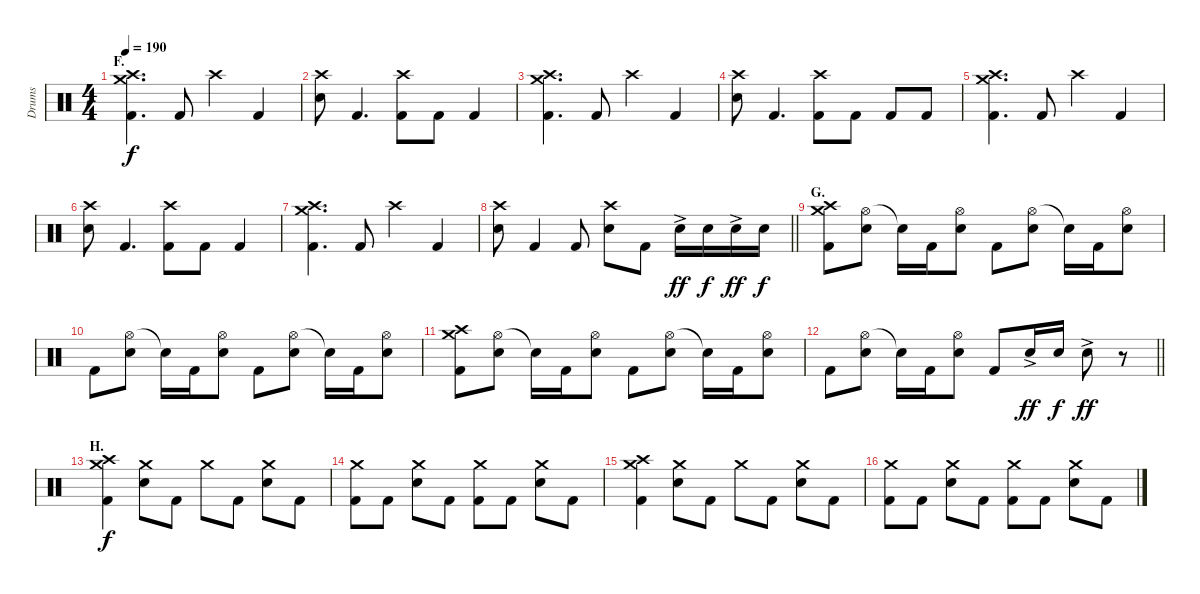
\track ("Drums" "Drums") {instrument percussion}
\staff {score}
\articulation defaults
\ts (4 4)
\section ("" "F.")
\tempo 190
\clef neutral
\ks c
("Crash medium (hit)" "Crash high (hit)" "Kick (hit) 2").4{d dy f} "Kick (hit) 2".8 "Crash high (hit)".4 "Kick (hit) 2".4 |
("Crash high (hit)" "Electric Snare (hit)").8 "Kick (hit) 2".4{d} ("Crash high (hit)" "Kick (hit) 2").8 "Kick (hit) 2".8 "Kick (hit) 2".4 |
("Crash medium (hit)" "Crash high (hit)" "Kick (hit) 2").4{d} "Kick (hit) 2".8 "Crash high (hit)".4 "Kick (hit) 2".4 |
("Crash high (hit)" "Electric Snare (hit)").8 "Kick (hit) 2".4{d} ("Crash high (hit)" "Kick (hit) 2").8 "Kick (hit) 2".8 "Kick (hit) 2".8 "Kick (hit) 2".8 |
("Crash medium (hit)" "Crash high (hit)" "Kick (hit) 2").4{d} "Kick (hit) 2".8 "Crash high (hit)".4 "Kick (hit) 2".4 |
("Crash high (hit)" "Electric Snare (hit)").8 "Kick (hit) 2".4{d} ("Crash high (hit)" "Kick (hit) 2").8 "Kick (hit) 2".8 "Kick (hit) 2".4 |
("Crash medium (hit)" "Crash high (hit)" "Kick (hit) 2").4{d} "Kick (hit) 2".8 "Crash high (hit)".4 "Kick (hit) 2".4 |
\barLineRight lightlight
("Crash high (hit)" "Electric Snare (hit)").8 "Kick (hit) 2".4 "Kick (hit) 2".8 ("Crash high (hit)" "Electric Snare (hit)").8 "Kick (hit) 2".8 "Electric Snare (hit)"{ac}.16{dy ff} "Electric Snare (hit)".16{dy f} "Electric Snare (hit)"{ac}.16{dy ff} "Electric Snare (hit)".16{dy f} |
\section ("" "G.")
("Crash medium (hit)" "Crash high (hit)" "Kick (hit) 2").8 ("Hi-Hat (open)" "Electric Snare (hit)").8 "Snare (hit)"{t}.16 "Kick (hit) 2".16 ("Hi-Hat (open)" "Electric Snare (hit)").8 "Kick (hit) 2".8 ("Hi-Hat (open)" "Electric Snare (hit)").8 "Snare (hit)"{t}.16 "Kick (hit) 2".16 ("Hi-Hat (open)" "Electric Snare (hit)").8 |
"Kick (hit) 2".8 ("Hi-Hat (open)" "Electric Snare (hit)").8 "Snare (hit)"{t}.16 "Kick (hit) 2".16 ("Hi-Hat (open)" "Electric Snare (hit)").8 "Kick (hit) 2".8 ("Hi-Hat (open)" "Electric Snare (hit)").8 "Snare (hit)"{t}.16 "Kick (hit) 2".16 ("Hi-Hat (open)" "Electric Snare (hit)").8 |
("Crash medium (hit)" "Crash high (hit)" "Kick (hit) 2").8 ("Hi-Hat (open)" "Electric Snare (hit)").8 "Snare (hit)"{t}.16 "Kick (hit) 2".16 ("Hi-Hat (open)" "Electric Snare (hit)").8 "Kick (hit) 2".8 ("Hi-Hat (open)" "Electric Snare (hit)").8 "Snare (hit)"{t}.16 "Kick (hit) 2".16 ("Hi-Hat (open)" "Electric Snare (hit)").8 |
\barLineRight lightlight "Kick (hit) 2".8
("Hi-Hat (open)" "Electric Snare (hit)").8 "Snare (hit)"{t}.16 "Kick (hit) 2".16 ("Hi-Hat (open)" "Electric Snare (hit)").8 "Kick (hit) 2".8 "Electric Snare (hit)"{ac}.16{dy ff} "Electric Snare (hit)".16{dy f} "Electric Snare (hit)"{ac}.8{dy ff} r.8 |
\section ("" "H.")
("Crash medium (hit)" "Crash high (hit)" "Kick (hit) 2").4{dy f} ("Crash medium (hit)" "Electric Snare (hit)").8 "Kick (hit) 2".8 "Crash medium (hit)".8 "Kick (hit) 2".8 ("Crash medium (hit)" "Electric Snare (hit)").8 "Kick (hit) 2".8 |
("Crash medium (hit)" "Kick (hit) 2").8 "Kick (hit) 2".8 ("Crash medium (hit)" "Electric Snare (hit)").8 "Kick (hit) 2".8 ("Crash medium (hit)" "Kick (hit) 2").8 "Kick (hit) 2".8 ("Crash medium (hit)" "Electric Snare (hit)").8 "Kick (hit) 2".8 |
("Crash medium (hit)" "Crash high (hit)" "Kick (hit) 2").4 ("Crash medium (hit)" "Electric Snare (hit)").8 "Kick (hit) 2".8 "Crash medium (hit)".8 "Kick (hit) 2".8 ("Crash medium (hit)" "Electric Snare (hit)").8 "Kick (hit) 2".8 |
("Crash medium (hit)" "Kick (hit) 2").8 "Kick (hit) 2".8 ("Crash medium (hit)" "Electric Snare (hit)").8 "Kick (hit) 2".8 ("Crash medium (hit)" "Kick (hit) 2").8 "Kick (hit) 2".8 ("Crash medium (hit)" "Electric Snare (hit)").8 "Kick (hit) 2".8
